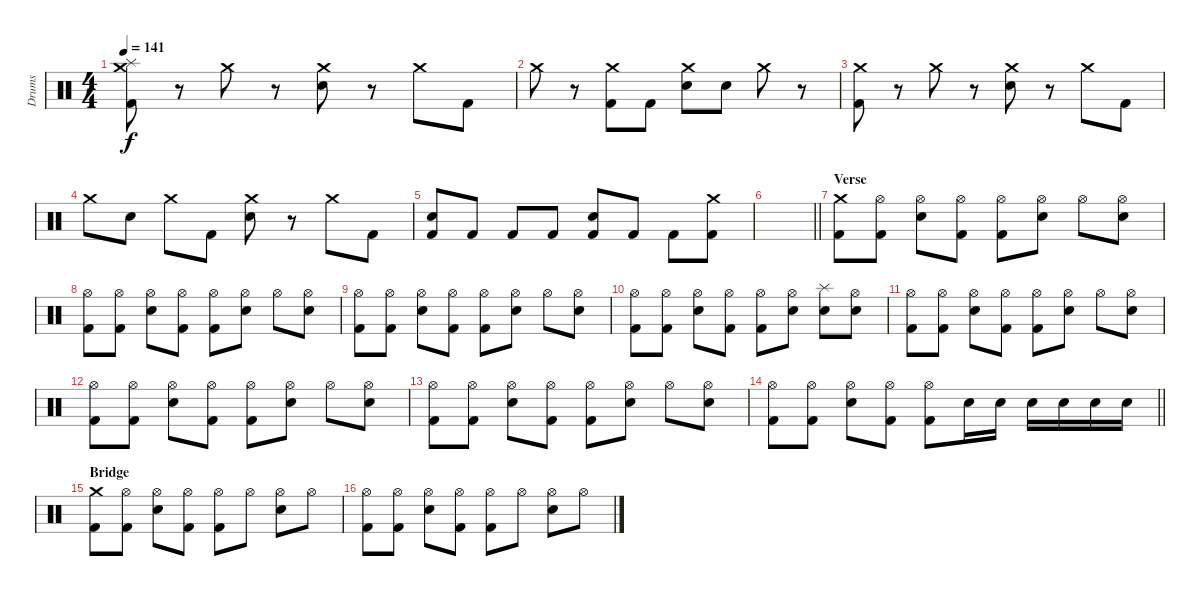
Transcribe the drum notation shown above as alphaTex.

\track ("Drums" "Drums") {instrument percussion}
\staff {score}
\articulation defaults
\ts (4 4)
\tempo 141
\clef neutral
\ks c
("Crash medium (hit)" "Splash (hit)" "Kick (hit) 2").8{dy f} r.8 "Crash medium (hit)".8 r.8 ("Crash medium (hit)" "Electric Snare (hit)").8 r.8 "Crash medium (hit)".8 "Kick (hit) 2".8 |
"Crash medium (hit)".8 r.8 ("Crash medium (hit)" "Kick (hit) 2").8 "Kick (hit) 2".8 ("Crash medium (hit)" "Electric Snare (hit)").8 "Electric Snare (hit)".8 "Crash medium (hit)".8 r.8 |
("Crash medium (hit)" "Kick (hit) 2").8 r.8 "Crash medium (hit)".8 r.8 ("Crash medium (hit)" "Electric Snare (hit)").8 r.8 "Crash medium (hit)".8 "Kick (hit) 2".8 |
"Crash medium (hit)".8 "Electric Snare (hit)".8 "Crash medium (hit)".8 "Kick (hit) 2".8 ("Crash medium (hit)" "Electric Snare (hit)").8 r.8 "Crash medium (hit)".8 "Kick (hit) 2".8 |
("Electric Snare (hit)" "Kick (hit) 2").8 "Kick (hit) 2".8 "Kick (hit) 2".8 "Kick (hit) 2".8 ("Electric Snare (hit)" "Kick (hit) 2").8 "Kick (hit) 2".8 "Kick (hit) 2".8 ("Crash medium (hit)" "Kick (hit) 2").8 |
\barLineRight lightlight
|
\section ("" "Verse")
("Crash medium (hit)" "Kick (hit) 2").8 ("Hi-Hat (open)" "Kick (hit) 2").8 ("Hi-Hat (open)" "Electric Snare (hit)").8 ("Hi-Hat (open)" "Kick (hit) 2").8 ("Hi-Hat (open)" "Kick (hit) 2").8 ("Hi-Hat (open)" "Electric Snare (hit)").8 "Hi-Hat (open)".8 ("Hi-Hat (open)" "Electric Snare (hit)").8 |
("Hi-Hat (open)" "Kick (hit) 2").8 ("Hi-Hat (open)" "Kick (hit) 2").8 ("Hi-Hat (open)" "Electric Snare (hit)").8 ("Hi-Hat (open)" "Kick (hit) 2").8 ("Hi-Hat (open)" "Kick (hit) 2").8 ("Hi-Hat (open)" "Electric Snare (hit)").8 "Hi-Hat (open)".8 ("Hi-Hat (open)" "Electric Snare (hit)").8 |
("Hi-Hat (open)" "Kick (hit) 2").8 ("Hi-Hat (open)" "Kick (hit) 2").8 ("Hi-Hat (open)" "Electric Snare (hit)").8 ("Hi-Hat (open)" "Kick (hit) 2").8 ("Hi-Hat (open)" "Kick (hit) 2").8 ("Hi-Hat (open)" "Electric Snare (hit)").8 "Hi-Hat (open)".8 ("Hi-Hat (open)" "Electric Snare (hit)").8 |
("Hi-Hat (open)" "Kick (hit) 2").8 ("Hi-Hat (open)" "Kick (hit) 2").8 ("Hi-Hat (open)" "Electric Snare (hit)").8 ("Hi-Hat (open)" "Kick (hit) 2").8 ("Hi-Hat (open)" "Kick (hit) 2").8 ("Hi-Hat (open)" "Electric Snare (hit)").8 ("Splash (hit)" "Electric Snare (hit)").8 ("Hi-Hat (open)" "Electric Snare (hit)").8 |
("Hi-Hat (open)" "Kick (hit) 2").8 ("Hi-Hat (open)" "Kick (hit) 2").8 ("Hi-Hat (open)" "Electric Snare (hit)").8 ("Hi-Hat (open)" "Kick (hit) 2").8 ("Hi-Hat (open)" "Kick (hit) 2").8 ("Hi-Hat (open)" "Electric Snare (hit)").8 "Hi-Hat (open)".8 ("Hi-Hat (open)" "Electric Snare (hit)").8 |
("Hi-Hat (open)" "Kick (hit) 2").8 ("Hi-Hat (open)" "Kick (hit) 2").8 ("Hi-Hat (open)" "Electric Snare (hit)").8 ("Hi-Hat (open)" "Kick (hit) 2").8 ("Hi-Hat (open)" "Kick (hit) 2").8 ("Hi-Hat (open)" "Electric Snare (hit)").8 "Hi-Hat (open)".8 ("Hi-Hat (open)" "Electric Snare (hit)").8 |
("Hi-Hat (open)" "Kick (hit) 2").8 ("Hi-Hat (open)" "Kick (hit) 2").8 ("Hi-Hat (open)" "Electric Snare (hit)").8 ("Hi-Hat (open)" "Kick (hit) 2").8 ("Hi-Hat (open)" "Kick (hit) 2").8 ("Hi-Hat (open)" "Electric Snare (hit)").8 "Hi-Hat (open)".8 ("Hi-Hat (open)" "Electric Snare (hit)").8 |
\barLineRight lightlight
("Hi-Hat (open)" "Kick (hit) 2").8 ("Hi-Hat (open)" "Kick (hit) 2").8 ("Hi-Hat (open)" "Electric Snare (hit)").8 ("Hi-Hat (open)" "Kick (hit) 2").8 ("Hi-Hat (open)" "Kick (hit) 2").8 "Electric Snare (hit)".16 "Electric Snare (hit)".16 "Electric Snare (hit)".16 "Electric Snare (hit)".16 "Electric Snare (hit)".16 "Electric Snare (hit)".16 |
\section ("" "Bridge")
("Crash medium (hit)" "Kick (hit) 2").8 ("Hi-Hat (open)" "Kick (hit) 2").8 ("Hi-Hat (open)" "Electric Snare (hit)").8 ("Hi-Hat (open)" "Kick (hit) 2").8 ("Hi-Hat (open)" "Kick (hit) 2").8 "Hi-Hat (open)".8 ("Hi-Hat (open)" "Electric Snare (hit)").8 "Hi-Hat (open)".8 |
("Hi-Hat (open)" "Kick (hit) 2").8 ("Hi-Hat (open)" "Kick (hit) 2").8 ("Hi-Hat (open)" "Electric Snare (hit)").8 ("Hi-Hat (open)" "Kick (hit) 2").8 ("Hi-Hat (open)" "Kick (hit) 2").8 "Hi-Hat (open)".8 ("Hi-Hat (open)" "Electric Snare (hit)").8 "Hi-Hat (open)".8
